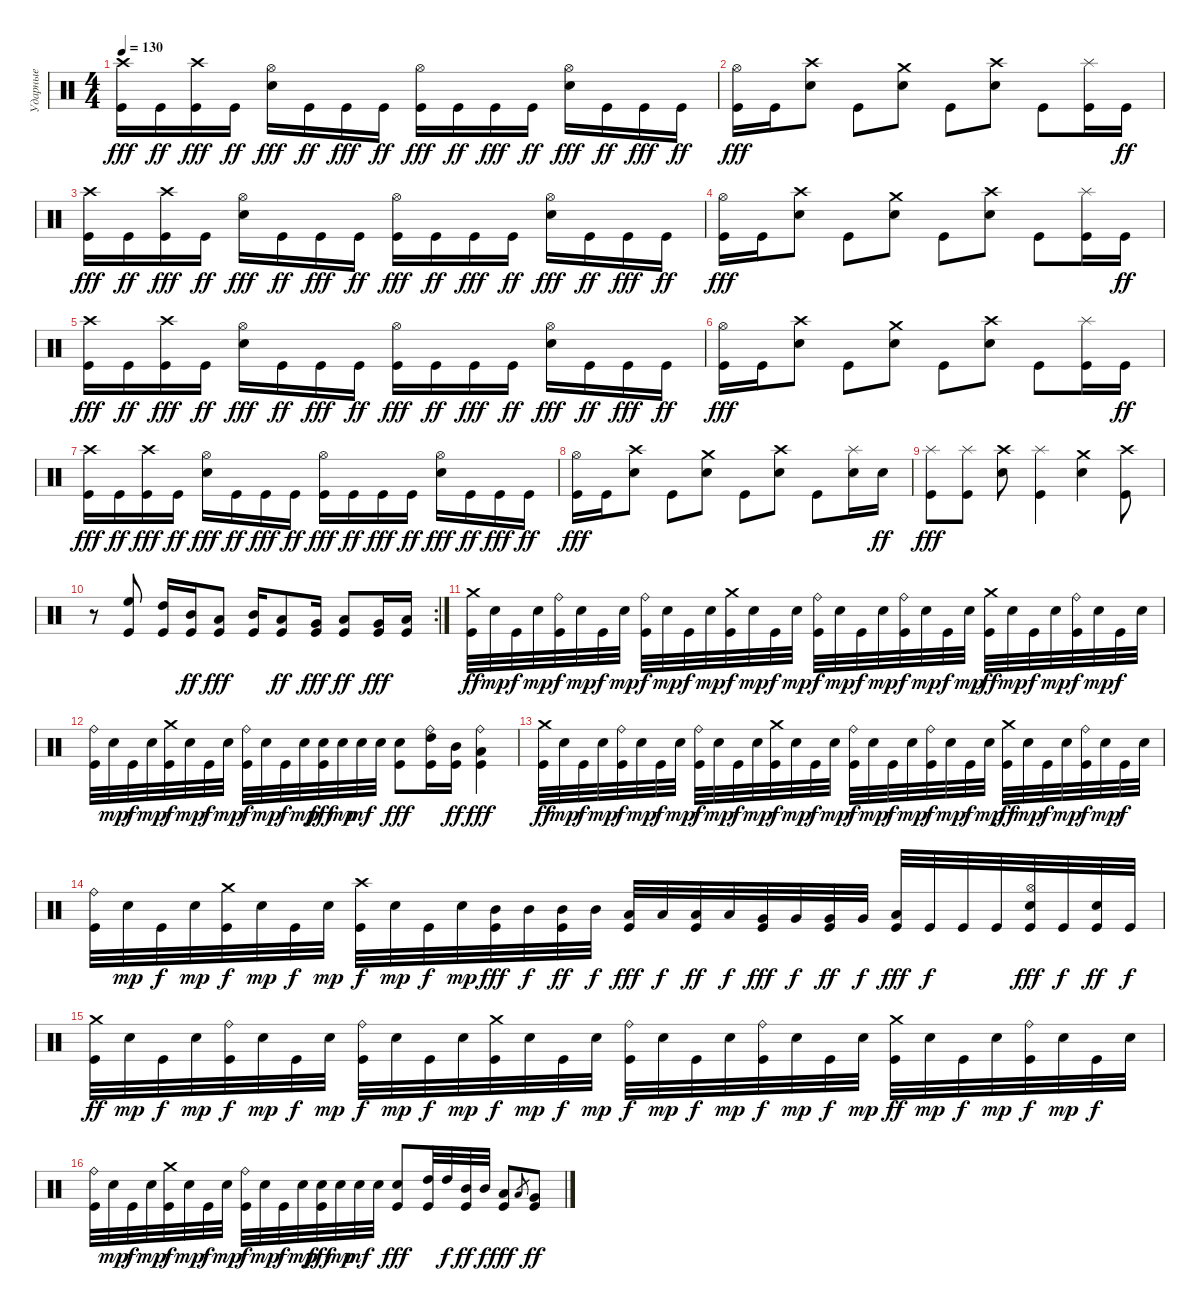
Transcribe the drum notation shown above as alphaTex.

\track ("Ударные" "Ударные") {instrument percussion}
\staff {score}
\articulation defaults
\ts (4 4)
\tempo 130
\clef neutral
\ks c
("Crash high (hit)" "Kick (hit)").16{dy fff} "Kick (hit)".16{dy ff} ("Crash high (hit)" "Kick (hit)").16{dy fff} "Kick (hit)".16{dy ff} ("Hi-Hat (open)" "Electric Snare (hit)").16{dy fff} "Kick (hit)".16{dy ff} "Kick (hit)".16{dy fff} "Kick (hit)".16{dy ff} ("Hi-Hat (open)" "Kick (hit)").16{dy fff} "Kick (hit)".16{dy ff} "Kick (hit)".16{dy fff} "Kick (hit)".16{dy ff} ("Hi-Hat (open)" "Electric Snare (hit)").16{dy fff} "Kick (hit)".16{dy ff} "Kick (hit)".16{dy fff} "Kick (hit)".16{dy ff} |
("Hi-Hat (open)" "Kick (hit)").16{dy fff} "Kick (hit)".16 ("Crash high (hit)" "Electric Snare (hit)").8 "Kick (hit)".8 ("Crash medium (hit)" "Electric Snare (hit)").8 "Kick (hit)".8 ("Crash high (hit)" "Electric Snare (hit)").8 "Kick (hit)".8 ("Splash (hit)" "Kick (hit)").16 "Kick (hit)".16{dy ff} |
("Crash high (hit)" "Kick (hit)").16{dy fff} "Kick (hit)".16{dy ff} ("Crash high (hit)" "Kick (hit)").16{dy fff} "Kick (hit)".16{dy ff} ("Hi-Hat (open)" "Electric Snare (hit)").16{dy fff} "Kick (hit)".16{dy ff} "Kick (hit)".16{dy fff} "Kick (hit)".16{dy ff} ("Hi-Hat (open)" "Kick (hit)").16{dy fff} "Kick (hit)".16{dy ff} "Kick (hit)".16{dy fff} "Kick (hit)".16{dy ff} ("Hi-Hat (open)" "Electric Snare (hit)").16{dy fff} "Kick (hit)".16{dy ff} "Kick (hit)".16{dy fff} "Kick (hit)".16{dy ff} |
("Hi-Hat (open)" "Kick (hit)").16{dy fff} "Kick (hit)".16 ("Crash high (hit)" "Electric Snare (hit)").8 "Kick (hit)".8 ("Crash medium (hit)" "Electric Snare (hit)").8 "Kick (hit)".8 ("Crash high (hit)" "Electric Snare (hit)").8 "Kick (hit)".8 ("Splash (hit)" "Kick (hit)").16 "Kick (hit)".16{dy ff} |
("Crash high (hit)" "Kick (hit)").16{dy fff} "Kick (hit)".16{dy ff} ("Crash high (hit)" "Kick (hit)").16{dy fff} "Kick (hit)".16{dy ff} ("Hi-Hat (open)" "Electric Snare (hit)").16{dy fff} "Kick (hit)".16{dy ff} "Kick (hit)".16{dy fff} "Kick (hit)".16{dy ff} ("Hi-Hat (open)" "Kick (hit)").16{dy fff} "Kick (hit)".16{dy ff} "Kick (hit)".16{dy fff} "Kick (hit)".16{dy ff} ("Hi-Hat (open)" "Electric Snare (hit)").16{dy fff} "Kick (hit)".16{dy ff} "Kick (hit)".16{dy fff} "Kick (hit)".16{dy ff} |
("Hi-Hat (open)" "Kick (hit)").16{dy fff} "Kick (hit)".16 ("Crash high (hit)" "Electric Snare (hit)").8 "Kick (hit)".8 ("Crash medium (hit)" "Electric Snare (hit)").8 "Kick (hit)".8 ("Crash high (hit)" "Electric Snare (hit)").8 "Kick (hit)".8 ("Splash (hit)" "Kick (hit)").16 "Kick (hit)".16{dy ff} |
("Crash high (hit)" "Kick (hit)").16{dy fff} "Kick (hit)".16{dy ff} ("Crash high (hit)" "Kick (hit)").16{dy fff} "Kick (hit)".16{dy ff} ("Hi-Hat (open)" "Electric Snare (hit)").16{dy fff} "Kick (hit)".16{dy ff} "Kick (hit)".16{dy fff} "Kick (hit)".16{dy ff} ("Hi-Hat (open)" "Kick (hit)").16{dy fff} "Kick (hit)".16{dy ff} "Kick (hit)".16{dy fff} "Kick (hit)".16{dy ff} ("Hi-Hat (open)" "Electric Snare (hit)").16{dy fff} "Kick (hit)".16{dy ff} "Kick (hit)".16{dy fff} "Kick (hit)".16{dy ff} |
("Hi-Hat (open)" "Kick (hit)").16{dy fff} "Kick (hit)".16 ("Crash high (hit)" "Electric Snare (hit)").8 "Kick (hit)".8 ("Crash medium (hit)" "Electric Snare (hit)").8 "Kick (hit)".8 ("Crash high (hit)" "Electric Snare (hit)").8 "Kick (hit)".8 ("Splash (hit)" "Electric Snare (hit)").16 "Electric Snare (hit)".16{dy ff} |
("Splash (hit)" "Kick (hit)").8{dy fff} ("Splash (hit)" "Kick (hit)").8 ("Crash high (hit)" "Electric Snare (hit)").8 ("Splash (hit)" "Kick (hit)").4 ("Crash medium (hit)" "Electric Snare (hit)").4 ("Crash high (hit)" "Kick (hit)").8 |
\rc 2
r.8 ("High Floor Tom (hit)" "Kick (hit)").8 ("High Tom (hit)" "Kick (hit)").16 ("Mid Tom (hit)" "Kick (hit)").16{dy ff} ("Low Tom (hit)" "Kick (hit)").8{dy fff} ("Mid Tom (hit)" "Kick (hit)").16 ("Low Tom (hit)" "Kick (hit)").8{dy ff} ("Very Low Tom (hit)" "Kick (hit)").16{dy fff} ("Low Floor Tom (hit)" "Kick (hit)").8{dy ff} ("Very Low Tom (hit)" "Kick (hit)").16{dy fff} ("Low Floor Tom (hit)" "Kick (hit)").16 |
("Crash medium (hit)" "Kick (hit)").32{dy ff} "Electric Snare (hit)".32{dy mp} "Kick (hit)".32{dy f} "Electric Snare (hit)".32{dy mp} ("Ride (bell)" "Kick (hit)").32{dy f} "Electric Snare (hit)".32{dy mp} "Kick (hit)".32{dy f} "Electric Snare (hit)".32{dy mp} ("Ride (bell)" "Kick (hit)").32{dy f} "Electric Snare (hit)".32{dy mp} "Kick (hit)".32{dy f} "Electric Snare (hit)".32{dy mp} ("Crash medium (hit)" "Kick (hit)").32{dy f} "Electric Snare (hit)".32{dy mp} "Kick (hit)".32{dy f} "Electric Snare (hit)".32{dy mp} ("Ride (bell)" "Kick (hit)").32{dy f} "Electric Snare (hit)".32{dy mp} "Kick (hit)".32{dy f} "Electric Snare (hit)".32{dy mp} ("Ride (bell)" "Kick (hit)").32{dy f} "Electric Snare (hit)".32{dy mp} "Kick (hit)".32{dy f} "Electric Snare (hit)".32{dy mp} ("Crash medium (hit)" "Kick (hit)").32{dy ff} "Electric Snare (hit)".32{dy mp} "Kick (hit)".32{dy f} "Electric Snare (hit)".32{dy mp} ("Ride (bell)" "Kick (hit)").32{dy f} "Electric Snare (hit)".32{dy mp} "Kick (hit)".32{dy f} "Electric Snare (hit)".32 |
("Ride (bell)" "Kick (hit)").32 "Electric Snare (hit)".32{dy mp} "Kick (hit)".32{dy f} "Electric Snare (hit)".32{dy mp} ("Crash medium (hit)" "Kick (hit)").32{dy f} "Electric Snare (hit)".32{dy mp} "Kick (hit)".32{dy f} "Electric Snare (hit)".32{dy mp} ("Ride (bell)" "Kick (hit)").32{dy f} "Electric Snare (hit)".32{dy mp} "Kick (hit)".32{dy f} "Electric Snare (hit)".32{dy mp} ("Electric Snare (hit)" "Kick (hit)").32{dy fff} "Electric Snare (hit)".32{dy mp} "Electric Snare (hit)".32{dy mf} "Electric Snare (hit)".32 ("Electric Snare (hit)" "Kick (hit)").8{dy fff} ("High Tom (hit)" "Ride (bell)" "Kick (hit)").16 ("Mid Tom (hit)" "Kick (hit)").16{dy ff} ("Low Tom (hit)" "Ride (bell)" "Kick (hit)").4{dy fff} |
("Crash medium (hit)" "Kick (hit)").32{dy ff} "Electric Snare (hit)".32{dy mp} "Kick (hit)".32{dy f} "Electric Snare (hit)".32{dy mp} ("Ride (bell)" "Kick (hit)").32{dy f} "Electric Snare (hit)".32{dy mp} "Kick (hit)".32{dy f} "Electric Snare (hit)".32{dy mp} ("Ride (bell)" "Kick (hit)").32{dy f} "Electric Snare (hit)".32{dy mp} "Kick (hit)".32{dy f} "Electric Snare (hit)".32{dy mp} ("Crash medium (hit)" "Kick (hit)").32{dy f} "Electric Snare (hit)".32{dy mp} "Kick (hit)".32{dy f} "Electric Snare (hit)".32{dy mp} ("Ride (bell)" "Kick (hit)").32{dy f} "Electric Snare (hit)".32{dy mp} "Kick (hit)".32{dy f} "Electric Snare (hit)".32{dy mp} ("Ride (bell)" "Kick (hit)").32{dy f} "Electric Snare (hit)".32{dy mp} "Kick (hit)".32{dy f} "Electric Snare (hit)".32{dy mp} ("Crash medium (hit)" "Kick (hit)").32{dy ff} "Electric Snare (hit)".32{dy mp} "Kick (hit)".32{dy f} "Electric Snare (hit)".32{dy mp} ("Ride (bell)" "Kick (hit)").32{dy f} "Electric Snare (hit)".32{dy mp} "Kick (hit)".32{dy f} "Electric Snare (hit)".32 |
("Ride (bell)" "Kick (hit)").32 "Electric Snare (hit)".32{dy mp} "Kick (hit)".32{dy f} "Electric Snare (hit)".32{dy mp} ("Crash medium (hit)" "Kick (hit)").32{dy f} "Electric Snare (hit)".32{dy mp} "Kick (hit)".32{dy f} "Electric Snare (hit)".32{dy mp} ("Crash high (hit)" "Kick (hit)").32{dy f} "Electric Snare (hit)".32{dy mp} "Kick (hit)".32{dy f} "Electric Snare (hit)".32{dy mp} ("Mid Tom (hit)" "Kick (hit)").32{dy fff} "Mid Tom (hit)".32{dy f} ("Mid Tom (hit)" "Kick (hit)").32{dy ff} "Mid Tom (hit)".32{dy f} ("Low Tom (hit)" "Kick (hit)").32{dy fff} "Low Tom (hit)".32{dy f} ("Low Tom (hit)" "Kick (hit)").32{dy ff} "Low Tom (hit)".32{dy f} ("Very Low Tom (hit)" "Kick (hit)").32{dy fff} "Very Low Tom (hit)".32{dy f} ("Very Low Tom (hit)" "Kick (hit)").32{dy ff} "Very Low Tom (hit)".32{dy f} ("Low Floor Tom (hit)" "Kick (hit)").32{dy fff} "Kick (hit)".32{dy f} "Kick (hit)".32 "Kick (hit)".32 ("Hi-Hat (open)" "Electric Snare (hit)" "Kick (hit)").32{dy fff} "Kick (hit)".32{dy f} ("Electric Snare (hit)" "Kick (hit)").32{dy ff} "Kick (hit)".32{dy f} |
("Crash medium (hit)" "Kick (hit)").32{dy ff} "Electric Snare (hit)".32{dy mp} "Kick (hit)".32{dy f} "Electric Snare (hit)".32{dy mp} ("Ride (bell)" "Kick (hit)").32{dy f} "Electric Snare (hit)".32{dy mp} "Kick (hit)".32{dy f} "Electric Snare (hit)".32{dy mp} ("Ride (bell)" "Kick (hit)").32{dy f} "Electric Snare (hit)".32{dy mp} "Kick (hit)".32{dy f} "Electric Snare (hit)".32{dy mp} ("Crash medium (hit)" "Kick (hit)").32{dy f} "Electric Snare (hit)".32{dy mp} "Kick (hit)".32{dy f} "Electric Snare (hit)".32{dy mp} ("Ride (bell)" "Kick (hit)").32{dy f} "Electric Snare (hit)".32{dy mp} "Kick (hit)".32{dy f} "Electric Snare (hit)".32{dy mp} ("Ride (bell)" "Kick (hit)").32{dy f} "Electric Snare (hit)".32{dy mp} "Kick (hit)".32{dy f} "Electric Snare (hit)".32{dy mp} ("Crash medium (hit)" "Kick (hit)").32{dy ff} "Electric Snare (hit)".32{dy mp} "Kick (hit)".32{dy f} "Electric Snare (hit)".32{dy mp} ("Ride (bell)" "Kick (hit)").32{dy f} "Electric Snare (hit)".32{dy mp} "Kick (hit)".32{dy f} "Electric Snare (hit)".32 |
("Ride (bell)" "Kick (hit)").32 "Electric Snare (hit)".32{dy mp} "Kick (hit)".32{dy f} "Electric Snare (hit)".32{dy mp} ("Crash medium (hit)" "Kick (hit)").32{dy f} "Electric Snare (hit)".32{dy mp} "Kick (hit)".32{dy f} "Electric Snare (hit)".32{dy mp} ("Ride (bell)" "Kick (hit)").32{dy f} "Electric Snare (hit)".32{dy mp} "Kick (hit)".32{dy f} "Electric Snare (hit)".32{dy mp} ("Electric Snare (hit)" "Kick (hit)").32{dy fff} "Electric Snare (hit)".32{dy mp} "Electric Snare (hit)".32{dy mf} "Electric Snare (hit)".32 ("Electric Snare (hit)" "Kick (hit)").8{dy fff} ("High Tom (hit)" "Kick (hit)").32 "High Tom (hit)".32{dy f} ("Mid Tom (hit)" "Kick (hit)").32{dy ff} "Mid Tom (hit)".32{dy f} ("Low Tom (hit)" "Kick (hit)").8{dy fff} "Low Floor Tom (hit)".8{gr} ("Very Low Tom (hit)" "Kick (hit)").8{dy ff}
